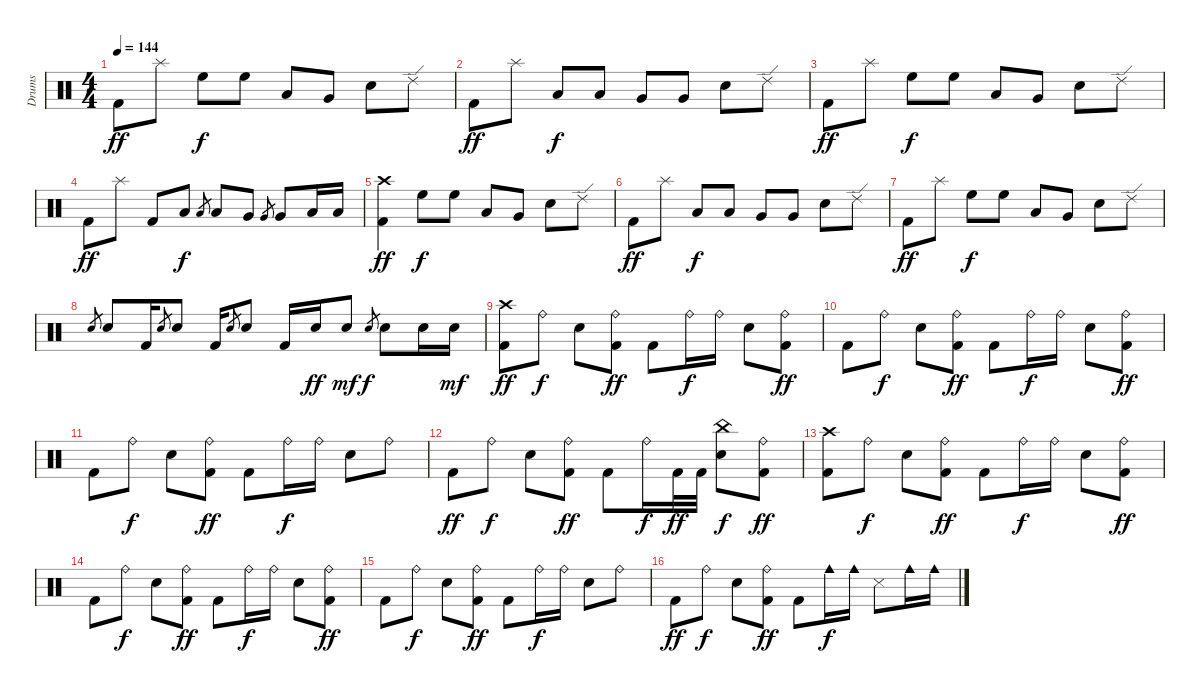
\track ("Drums" "Drums") {instrument percussion}
\staff {score}
\articulation defaults
\ts (4 4)
\tempo 144
\clef neutral
\ks c "Kick (hit) 2".8{dy ff} "Splash (hit)".8 "High Floor Tom (hit)".8{dy f} "High Floor Tom (hit)".8 "Low Tom (hit)".8 "Very Low Tom (hit)".8 "Snare (hit) 2".8 "Ride (edge) 2".8
|
"Kick (hit) 2".8{dy ff} "Splash (hit)".8 "Low Tom (hit)".8{dy f} "Low Tom (hit)".8 "Very Low Tom (hit)".8 "Very Low Tom (hit)".8 "Snare (hit) 2".8 "Ride (edge) 2".8 |
"Kick (hit) 2".8{dy ff} "Splash (hit)".8 "High Floor Tom (hit)".8{dy f} "High Floor Tom (hit)".8 "Low Tom (hit)".8 "Very Low Tom (hit)".8 "Snare (hit) 2".8 "Ride (edge) 2".8 |
"Kick (hit) 2".8{dy ff} "Splash (hit)".8 "Kick (hit) 2".8 "Low Tom (hit)".8{dy f} "Low Tom (hit)".8{gr} "Low Tom (hit)".8 "Very Low Tom (hit)".8 "Very Low Tom (hit)".8{gr} "Very Low Tom (hit)".8 "Low Floor Tom (hit)".16 "Low Floor Tom (hit)".16 |
("Crash high (hit)" "Kick (hit) 2").4{dy ff} "High Floor Tom (hit)".8{dy f} "High Floor Tom (hit)".8 "Low Tom (hit)".8 "Very Low Tom (hit)".8 "Snare (hit) 2".8 "Ride (edge) 2".8 |
"Kick (hit) 2".8{dy ff} "Splash (hit)".8 "Low Tom (hit)".8{dy f} "Low Tom (hit)".8 "Very Low Tom (hit)".8 "Very Low Tom (hit)".8 "Snare (hit) 2".8 "Ride (edge) 2".8 |
"Kick (hit) 2".8{dy ff} "Splash (hit)".8 "High Floor Tom (hit)".8{dy f} "High Floor Tom (hit)".8 "Low Tom (hit)".8 "Very Low Tom (hit)".8 "Snare (hit) 2".8 "Ride (edge) 2".8 |
"Snare (hit) 2".8{gr} "Snare (hit) 2".8 "Kick (hit) 2".16 "Snare (hit) 2".8{gr} "Snare (hit) 2".8 "Kick (hit) 2".16 "Snare (hit) 2".8{gr} "Snare (hit) 2".8 "Kick (hit) 2".16 "Snare (hit) 2".16{dy ff} "Snare (hit) 2".8{dy mf} "Snare (hit) 2".8{gr dy f} "Snare (hit) 2".8 "Snare (hit) 2".16 "Snare (hit) 2".16{dy mf} |
("Crash high (hit)" "Kick (hit) 2").8{dy ff} "Ride (bell)".8{dy f} "Snare (hit) 2".8 ("Ride (bell)" "Kick (hit) 2").8{dy ff} "Kick (hit) 2".8 "Ride (bell)".16{dy f} "Ride (bell)".16 "Snare (hit) 2".8 ("Ride (bell)" "Kick (hit) 2").8{dy ff} |
"Kick (hit) 2".8 "Ride (bell)".8{dy f} "Snare (hit) 2".8 ("Ride (bell)" "Kick (hit) 2").8{dy ff} "Kick (hit) 2".8 "Ride (bell)".16{dy f} "Ride (bell)".16 "Snare (hit) 2".8 ("Ride (bell)" "Kick (hit) 2").8{dy ff} |
"Kick (hit) 2".8 "Ride (bell)".8{dy f} "Snare (hit) 2".8 ("Ride (bell)" "Kick (hit) 2").8{dy ff} "Kick (hit) 2".8 "Ride (bell)".16{dy f} "Ride (bell)".16 "Snare (hit) 2".8 "Ride (bell)".8 |
"Kick (hit) 2".8{dy ff} "Ride (bell)".8{dy f} "Snare (hit) 2".8 ("Ride (bell)" "Kick (hit) 2").8{dy ff} "Kick (hit) 2".8 "Ride (bell)".16{dy f} "Kick (hit) 2".32{dy ff} "Kick (hit) 2".32 ("China (hit)" "Snare (hit) 2").8{dy f} ("Ride (bell)" "Kick (hit) 2").8{dy ff} |
("Crash high (hit)" "Kick (hit) 2").8 "Ride (bell)".8{dy f} "Snare (hit) 2".8 ("Ride (bell)" "Kick (hit) 2").8{dy ff} "Kick (hit) 2".8 "Ride (bell)".16{dy f} "Ride (bell)".16 "Snare (hit) 2".8 ("Ride (bell)" "Kick (hit) 2").8{dy ff} |
"Kick (hit) 2".8 "Ride (bell)".8{dy f} "Snare (hit) 2".8 ("Ride (bell)" "Kick (hit) 2").8{dy ff} "Kick (hit) 2".8 "Ride (bell)".16{dy f} "Ride (bell)".16 "Snare (hit) 2".8 ("Ride (bell)" "Kick (hit) 2").8{dy ff} |
"Kick (hit) 2".8 "Ride (bell)".8{dy f} "Snare (hit) 2".8 ("Ride (bell)" "Kick (hit) 2").8{dy ff} "Kick (hit) 2".8 "Ride (bell)".16{dy f} "Ride (bell)".16 "Snare (hit) 2".8 "Ride (bell)".8 |
"Kick (hit) 2".8{dy ff} "Ride (bell)".8{dy f} "Snare (hit) 2".8 ("Ride (bell)" "Kick (hit) 2").8{dy ff} "Kick (hit) 2".8 "Cowbell medium (hit)".16{dy f} "Cowbell medium (hit)".16 "Snare (side stick) 3".8 "Cowbell medium (hit)".16 "Cowbell medium (hit)".16
